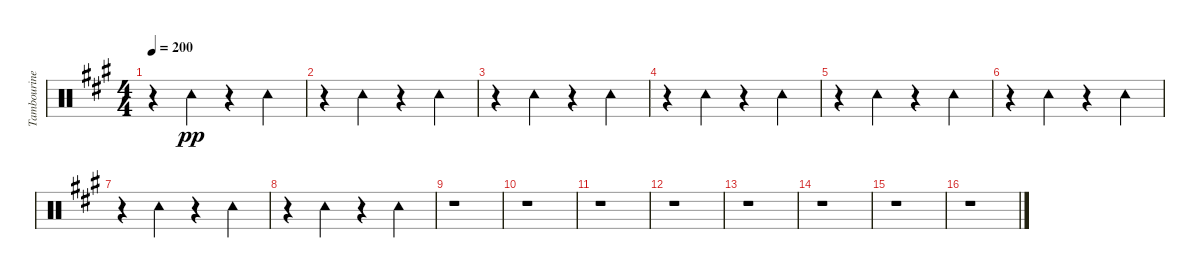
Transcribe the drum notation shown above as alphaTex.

\track ("Tambourine" "Tambourine") {instrument percussion}
\staff {score}
\articulation defaults
\ts (4 4)
\tempo 200
\clef neutral
\ks a
r.4{dy pp} "Tambourine (hit)".4 r.4 "Tambourine (hit)".4 |
r.4 "Tambourine (hit)".4 r.4 "Tambourine (hit)".4 |
r.4 "Tambourine (hit)".4 r.4 "Tambourine (hit)".4 |
r.4 "Tambourine (hit)".4 r.4 "Tambourine (hit)".4 |
r.4 "Tambourine (hit)".4 r.4 "Tambourine (hit)".4 |
r.4 "Tambourine (hit)".4 r.4 "Tambourine (hit)".4 |
r.4 "Tambourine (hit)".4 r.4 "Tambourine (hit)".4 |
r.4 "Tambourine (hit)".4 r.4 "Tambourine (hit)".4 |
r.1 |
r.1 |
r.1 |
r.1 |
r.1 |
r.1 |
r.1 |
r.1
